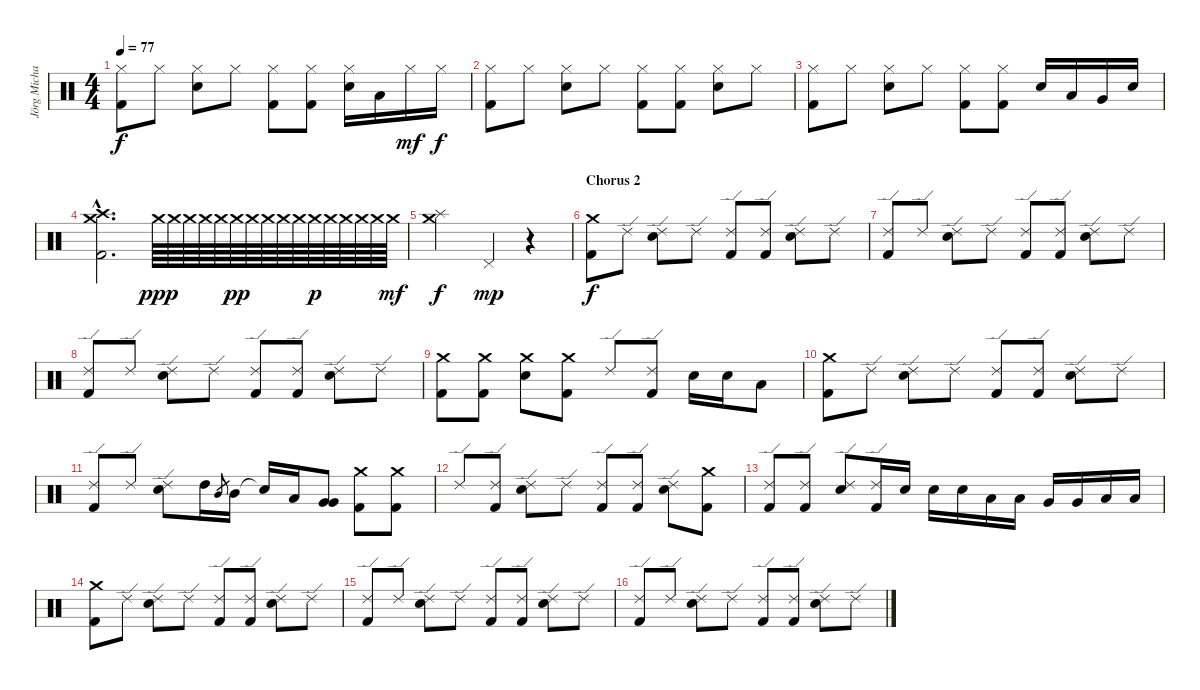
\track ("Jörg Michael" "Jörg Micha") {instrument percussion}
\staff {score}
\articulation defaults
\ts (4 4)
\tempo 77
\clef neutral
\ks c
("Hi-Hat (closed)" "Kick (hit) 2").8{dy f} "Hi-Hat (closed)".8 ("Hi-Hat (closed)" "Electric Snare (hit)").8 "Hi-Hat (closed)".8 ("Hi-Hat (closed)" "Kick (hit) 2").8 ("Hi-Hat (closed)" "Kick (hit) 2").8 ("Hi-Hat (closed)" "Electric Snare (hit)").16 "Low Tom (hit)".16 "Hi-Hat (closed)".16{dy mf} "Hi-Hat (closed)".16{dy f} |
("Hi-Hat (closed)" "Kick (hit) 2").8 "Hi-Hat (closed)".8 ("Hi-Hat (closed)" "Electric Snare (hit)").8 "Hi-Hat (closed)".8 ("Hi-Hat (closed)" "Kick (hit) 2").8 ("Hi-Hat (closed)" "Kick (hit) 2").8 ("Hi-Hat (closed)" "Electric Snare (hit)").8 "Hi-Hat (closed)".8 |
("Hi-Hat (closed)" "Kick (hit) 2").8 "Hi-Hat (closed)".8 ("Hi-Hat (closed)" "Electric Snare (hit)").8 "Hi-Hat (closed)".8 ("Hi-Hat (closed)" "Kick (hit) 2").8 ("Hi-Hat (closed)" "Kick (hit) 2").8 "Electric Snare (hit)".16 "Low Tom (hit)".16 "Very Low Tom (hit)".16 "Electric Snare (hit)".16 |
("Crash medium (hit)"{hac} "Crash high (hit)"{hac} "Kick (hit) 2"{hac}).2{d} "Crash medium (hit)".64{dy ppp} "Crash medium (hit)".64 "Crash medium (hit)".64 "Crash medium (hit)".64 "Crash medium (hit)".64 "Crash medium (hit)".64{dy pp} "Crash medium (hit)".64 "Crash medium (hit)".64 "Crash medium (hit)".64 "Crash medium (hit)".64 "Crash medium (hit)".64{dy p} "Crash medium (hit)".64 "Crash medium (hit)".64 "Crash medium (hit)".64 "Crash medium (hit)".64 "Crash medium (hit)".64{dy mf} |
("Splash (hit)" "Crash medium (hit)").2{dy f} "Pedal Hi-Hat (hit)".4{dy mp} r.4 |
\section ("" "Chorus 2")
("Crash medium (hit)" "Kick (hit) 2").8{dy f} "Ride (edge) 2".8 ("Ride (edge) 2" "Electric Snare (hit)").8 "Ride (edge) 2".8 ("Ride (edge) 2" "Kick (hit) 2").8 ("Ride (edge) 2" "Kick (hit) 2").8 ("Ride (edge) 2" "Electric Snare (hit)").8 "Ride (edge) 2".8 |
("Ride (edge) 2" "Kick (hit) 2").8 "Ride (edge) 2".8 ("Ride (edge) 2" "Electric Snare (hit)").8 "Ride (edge) 2".8 ("Ride (edge) 2" "Kick (hit) 2").8 ("Ride (edge) 2" "Kick (hit) 2").8 ("Ride (edge) 2" "Electric Snare (hit)").8 "Ride (edge) 2".8 |
("Ride (edge) 2" "Kick (hit) 2").8 "Ride (edge) 2".8 ("Ride (edge) 2" "Electric Snare (hit)").8 "Ride (edge) 2".8 ("Ride (edge) 2" "Kick (hit) 2").8 ("Ride (edge) 2" "Kick (hit) 2").8 ("Ride (edge) 2" "Electric Snare (hit)").8 "Ride (edge) 2".8 |
("Crash medium (hit)" "Kick (hit) 2").8 ("Crash medium (hit)" "Kick (hit) 2").8 ("Crash medium (hit)" "Electric Snare (hit)").8 ("Crash medium (hit)" "Kick (hit) 2").8 "Ride (edge) 2".8 ("Ride (edge) 2" "Kick (hit) 2").8 "Electric Snare (hit)".16 "Electric Snare (hit)".16 "Low Tom (hit)".8 |
("Crash medium (hit)" "Kick (hit) 2").8 "Ride (edge) 2".8 ("Ride (edge) 2" "Electric Snare (hit)").8 "Ride (edge) 2".8 ("Ride (edge) 2" "Kick (hit) 2").8 ("Ride (edge) 2" "Kick (hit) 2").8 ("Ride (edge) 2" "Electric Snare (hit)").8 "Ride (edge) 2".8 |
("Ride (edge) 2" "Kick (hit) 2").8 "Ride (edge) 2".8 ("Ride (edge) 2" "Electric Snare (hit)").8 "High Tom (hit)".16 "Mid Tom (hit)".8{gr} "Mid Tom (hit)".16 "Snare (hit)"{t}.16 "Low Tom (hit)".16 ("Very Low Tom (hit)" "Very Low Tom (hit)").8 ("Crash medium (hit)" "Kick (hit) 2").8 ("Crash medium (hit)" "Kick (hit) 2").8 |
"Ride (edge) 2".8 ("Ride (edge) 2" "Kick (hit) 2").8 ("Ride (edge) 2" "Electric Snare (hit)").8 "Ride (edge) 2".8 ("Ride (edge) 2" "Kick (hit) 2").8 ("Ride (edge) 2" "Kick (hit) 2").8 ("Ride (edge) 2" "Electric Snare (hit)").8 ("Crash medium (hit)" "Kick (hit) 2").8 |
("Ride (edge) 2" "Kick (hit) 2").8 ("Ride (edge) 2" "Kick (hit) 2").8 ("Ride (edge) 2" "Electric Snare (hit)").8 ("Ride (edge) 2" "Kick (hit) 2").16 "Electric Snare (hit)".16 "Electric Snare (hit)".16 "Electric Snare (hit)".16 "Low Tom (hit)".16 "Low Tom (hit)".16 "Very Low Tom (hit)".16 "Very Low Tom (hit)".16 "Low Floor Tom (hit)".16 "Low Floor Tom (hit)".16 |
("Crash medium (hit)" "Kick (hit) 2").8 "Ride (edge) 2".8 ("Ride (edge) 2" "Electric Snare (hit)").8 "Ride (edge) 2".8 ("Ride (edge) 2" "Kick (hit) 2").8 ("Ride (edge) 2" "Kick (hit) 2").8 ("Ride (edge) 2" "Electric Snare (hit)").8 "Ride (edge) 2".8 |
("Ride (edge) 2" "Kick (hit) 2").8 "Ride (edge) 2".8 ("Ride (edge) 2" "Electric Snare (hit)").8 "Ride (edge) 2".8 ("Ride (edge) 2" "Kick (hit) 2").8 ("Ride (edge) 2" "Kick (hit) 2").8 ("Ride (edge) 2" "Electric Snare (hit)").8 "Ride (edge) 2".8 |
("Ride (edge) 2" "Kick (hit) 2").8 "Ride (edge) 2".8 ("Ride (edge) 2" "Electric Snare (hit)").8 "Ride (edge) 2".8 ("Ride (edge) 2" "Kick (hit) 2").8 ("Ride (edge) 2" "Kick (hit) 2").8 ("Ride (edge) 2" "Electric Snare (hit)").8 "Ride (edge) 2".8
